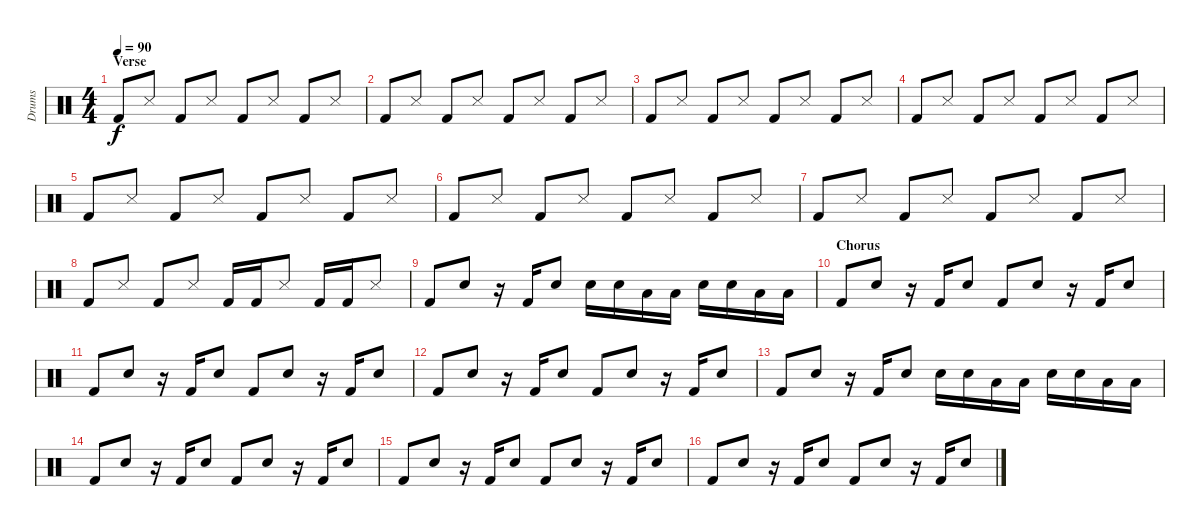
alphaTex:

\track ("Drums" "Drums") {instrument percussion}
\staff {score}
\articulation defaults
\ts (4 4)
\section ("" "Verse")
\tempo 90
\clef neutral
\ks c "Kick (hit) 2".8{dy f} "Snare (side stick) 3".8 "Kick (hit) 2".8 "Snare (side stick) 3".8 "Kick (hit) 2".8 "Snare (side stick) 3".8 "Kick (hit) 2".8 "Snare (side stick) 3".8
|
"Kick (hit) 2".8 "Snare (side stick) 3".8 "Kick (hit) 2".8 "Snare (side stick) 3".8 "Kick (hit) 2".8 "Snare (side stick) 3".8 "Kick (hit) 2".8 "Snare (side stick) 3".8 |
"Kick (hit) 2".8 "Snare (side stick) 3".8 "Kick (hit) 2".8 "Snare (side stick) 3".8 "Kick (hit) 2".8 "Snare (side stick) 3".8 "Kick (hit) 2".8 "Snare (side stick) 3".8 |
"Kick (hit) 2".8 "Snare (side stick) 3".8 "Kick (hit) 2".8 "Snare (side stick) 3".8 "Kick (hit) 2".8 "Snare (side stick) 3".8 "Kick (hit) 2".8 "Snare (side stick) 3".8 |
"Kick (hit) 2".8 "Snare (side stick) 3".8 "Kick (hit) 2".8 "Snare (side stick) 3".8 "Kick (hit) 2".8 "Snare (side stick) 3".8 "Kick (hit) 2".8 "Snare (side stick) 3".8 |
"Kick (hit) 2".8 "Snare (side stick) 3".8 "Kick (hit) 2".8 "Snare (side stick) 3".8 "Kick (hit) 2".8 "Snare (side stick) 3".8 "Kick (hit) 2".8 "Snare (side stick) 3".8 |
"Kick (hit) 2".8 "Snare (side stick) 3".8 "Kick (hit) 2".8 "Snare (side stick) 3".8 "Kick (hit) 2".8 "Snare (side stick) 3".8 "Kick (hit) 2".8 "Snare (side stick) 3".8 |
"Kick (hit) 2".8 "Snare (side stick) 3".8 "Kick (hit) 2".8 "Snare (side stick) 3".8 "Kick (hit) 2".16 "Kick (hit) 2".16 "Snare (side stick) 3".8 "Kick (hit) 2".16 "Kick (hit) 2".16 "Snare (side stick) 3".8 |
"Kick (hit) 2".8 "Snare (hit) 2".8 r.16 "Kick (hit) 2".16 "Snare (hit) 2".8 "Snare (hit) 2".16 "Snare (hit) 2".16 "Low Floor Tom (hit)".16 "Low Floor Tom (hit)".16 "Snare (hit) 2".16 "Snare (hit) 2".16 "Low Floor Tom (hit)".16 "Low Floor Tom (hit)".16 |
\section ("" "Chorus")
"Kick (hit) 2".8 "Snare (hit) 2".8 r.16 "Kick (hit) 2".16 "Snare (hit) 2".8 "Kick (hit) 2".8 "Snare (hit) 2".8 r.16 "Kick (hit) 2".16 "Snare (hit) 2".8 |
"Kick (hit) 2".8 "Snare (hit) 2".8 r.16 "Kick (hit) 2".16 "Snare (hit) 2".8 "Kick (hit) 2".8 "Snare (hit) 2".8 r.16 "Kick (hit) 2".16 "Snare (hit) 2".8 |
"Kick (hit) 2".8 "Snare (hit) 2".8 r.16 "Kick (hit) 2".16 "Snare (hit) 2".8 "Kick (hit) 2".8 "Snare (hit) 2".8 r.16 "Kick (hit) 2".16 "Snare (hit) 2".8 |
"Kick (hit) 2".8 "Snare (hit) 2".8 r.16 "Kick (hit) 2".16 "Snare (hit) 2".8 "Snare (hit) 2".16 "Snare (hit) 2".16 "Low Floor Tom (hit)".16 "Low Floor Tom (hit)".16 "Snare (hit) 2".16 "Snare (hit) 2".16 "Low Floor Tom (hit)".16 "Low Floor Tom (hit)".16 |
"Kick (hit) 2".8 "Snare (hit) 2".8 r.16 "Kick (hit) 2".16 "Snare (hit) 2".8 "Kick (hit) 2".8 "Snare (hit) 2".8 r.16 "Kick (hit) 2".16 "Snare (hit) 2".8 |
"Kick (hit) 2".8 "Snare (hit) 2".8 r.16 "Kick (hit) 2".16 "Snare (hit) 2".8 "Kick (hit) 2".8 "Snare (hit) 2".8 r.16 "Kick (hit) 2".16 "Snare (hit) 2".8 |
"Kick (hit) 2".8 "Snare (hit) 2".8 r.16 "Kick (hit) 2".16 "Snare (hit) 2".8 "Kick (hit) 2".8 "Snare (hit) 2".8 r.16 "Kick (hit) 2".16 "Snare (hit) 2".8
